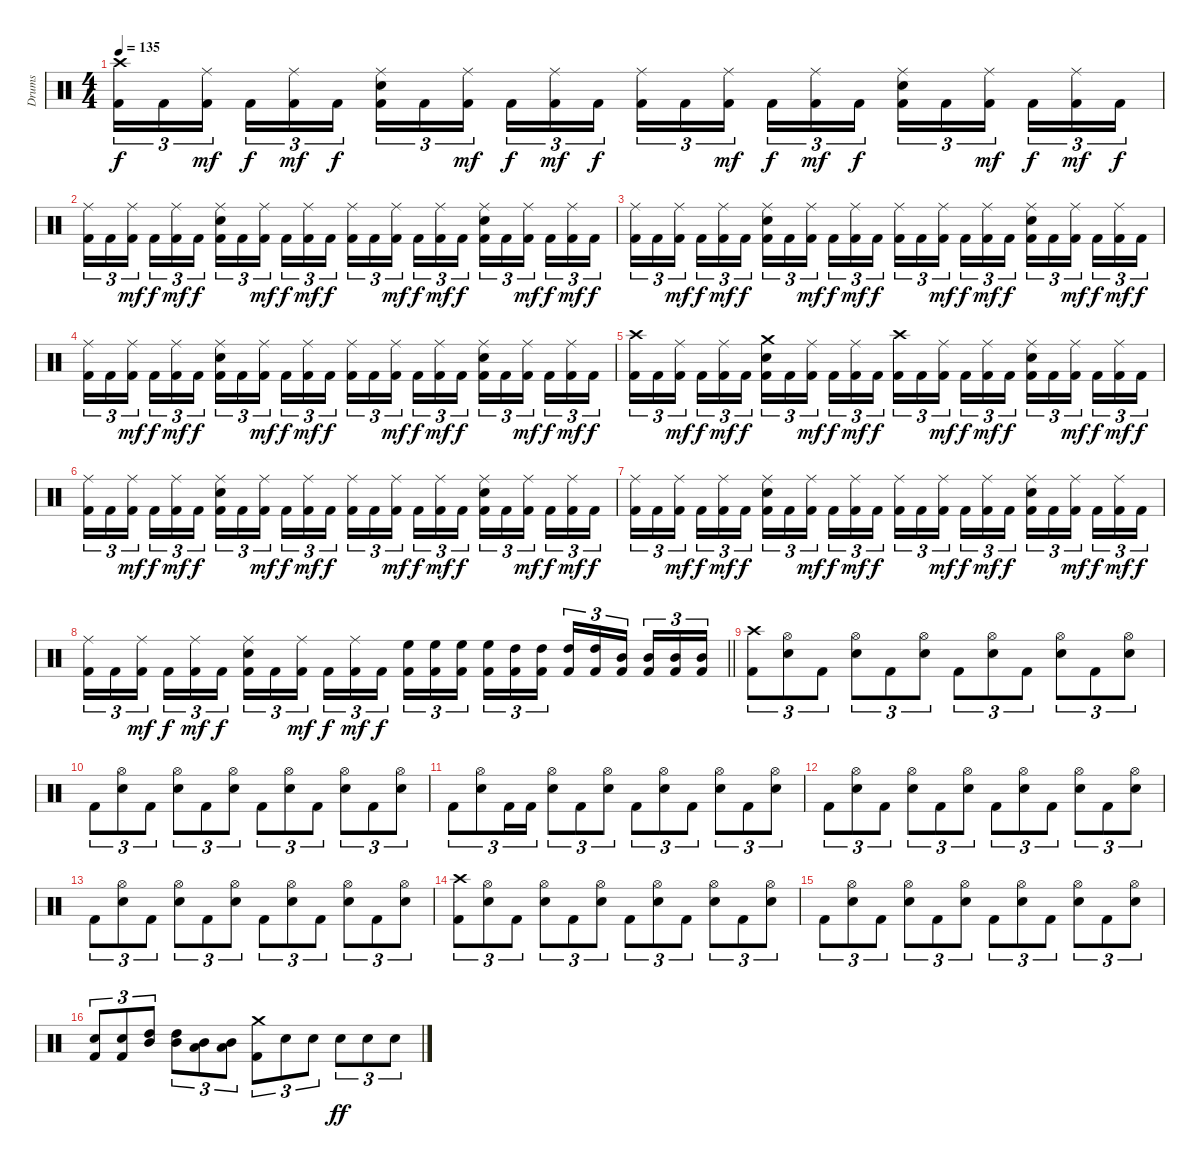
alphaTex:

\track ("Drums" "Drums") {instrument percussion}
\staff {score}
\articulation defaults
\ts (4 4)
\tempo 135
\clef neutral
\ks c
("Crash high (hit)" "Kick (hit) 2").16{tu (3 2) dy f} "Kick (hit) 2".16{tu (3 2)} ("Ride (middle)" "Kick (hit) 2").16{tu (3 2) dy mf beam splitsecondary} "Kick (hit) 2".16{tu (3 2) dy f} ("Ride (middle)" "Kick (hit) 2").16{tu (3 2) dy mf} "Kick (hit) 2".16{tu (3 2) dy f} ("Ride (middle)" "Electric Snare (hit)" "Kick (hit) 2").16{tu (3 2)} "Kick (hit) 2".16{tu (3 2)} ("Ride (middle)" "Kick (hit) 2").16{tu (3 2) dy mf beam splitsecondary} "Kick (hit) 2".16{tu (3 2) dy f} ("Ride (middle)" "Kick (hit) 2").16{tu (3 2) dy mf} "Kick (hit) 2".16{tu (3 2) dy f} ("Ride (middle)" "Kick (hit) 2").16{tu (3 2)} "Kick (hit) 2".16{tu (3 2)} ("Ride (middle)" "Kick (hit) 2").16{tu (3 2) dy mf beam splitsecondary} "Kick (hit) 2".16{tu (3 2) dy f} ("Ride (middle)" "Kick (hit) 2").16{tu (3 2) dy mf} "Kick (hit) 2".16{tu (3 2) dy f} ("Ride (middle)" "Electric Snare (hit)" "Kick (hit) 2").16{tu (3 2)} "Kick (hit) 2".16{tu (3 2)} ("Ride (middle)" "Kick (hit) 2").16{tu (3 2) dy mf beam splitsecondary} "Kick (hit) 2".16{tu (3 2) dy f} ("Ride (middle)" "Kick (hit) 2").16{tu (3 2) dy mf} "Kick (hit) 2".16{tu (3 2) dy f} |
("Ride (middle)" "Kick (hit) 2").16{tu (3 2)} "Kick (hit) 2".16{tu (3 2)} ("Ride (middle)" "Kick (hit) 2").16{tu (3 2) dy mf beam splitsecondary} "Kick (hit) 2".16{tu (3 2) dy f} ("Ride (middle)" "Kick (hit) 2").16{tu (3 2) dy mf} "Kick (hit) 2".16{tu (3 2) dy f} ("Ride (middle)" "Electric Snare (hit)" "Kick (hit) 2").16{tu (3 2)} "Kick (hit) 2".16{tu (3 2)} ("Ride (middle)" "Kick (hit) 2").16{tu (3 2) dy mf beam splitsecondary} "Kick (hit) 2".16{tu (3 2) dy f} ("Ride (middle)" "Kick (hit) 2").16{tu (3 2) dy mf} "Kick (hit) 2".16{tu (3 2) dy f} ("Ride (middle)" "Kick (hit) 2").16{tu (3 2)} "Kick (hit) 2".16{tu (3 2)} ("Ride (middle)" "Kick (hit) 2").16{tu (3 2) dy mf beam splitsecondary} "Kick (hit) 2".16{tu (3 2) dy f} ("Ride (middle)" "Kick (hit) 2").16{tu (3 2) dy mf} "Kick (hit) 2".16{tu (3 2) dy f} ("Ride (middle)" "Electric Snare (hit)" "Kick (hit) 2").16{tu (3 2)} "Kick (hit) 2".16{tu (3 2)} ("Ride (middle)" "Kick (hit) 2").16{tu (3 2) dy mf beam splitsecondary} "Kick (hit) 2".16{tu (3 2) dy f} ("Ride (middle)" "Kick (hit) 2").16{tu (3 2) dy mf} "Kick (hit) 2".16{tu (3 2) dy f} |
("Ride (middle)" "Kick (hit) 2").16{tu (3 2)} "Kick (hit) 2".16{tu (3 2)} ("Ride (middle)" "Kick (hit) 2").16{tu (3 2) dy mf beam splitsecondary} "Kick (hit) 2".16{tu (3 2) dy f} ("Ride (middle)" "Kick (hit) 2").16{tu (3 2) dy mf} "Kick (hit) 2".16{tu (3 2) dy f} ("Ride (middle)" "Electric Snare (hit)" "Kick (hit) 2").16{tu (3 2)} "Kick (hit) 2".16{tu (3 2)} ("Ride (middle)" "Kick (hit) 2").16{tu (3 2) dy mf beam splitsecondary} "Kick (hit) 2".16{tu (3 2) dy f} ("Ride (middle)" "Kick (hit) 2").16{tu (3 2) dy mf} "Kick (hit) 2".16{tu (3 2) dy f} ("Ride (middle)" "Kick (hit) 2").16{tu (3 2)} "Kick (hit) 2".16{tu (3 2)} ("Ride (middle)" "Kick (hit) 2").16{tu (3 2) dy mf beam splitsecondary} "Kick (hit) 2".16{tu (3 2) dy f} ("Ride (middle)" "Kick (hit) 2").16{tu (3 2) dy mf} "Kick (hit) 2".16{tu (3 2) dy f} ("Ride (middle)" "Electric Snare (hit)" "Kick (hit) 2").16{tu (3 2)} "Kick (hit) 2".16{tu (3 2)} ("Ride (middle)" "Kick (hit) 2").16{tu (3 2) dy mf beam splitsecondary} "Kick (hit) 2".16{tu (3 2) dy f} ("Ride (middle)" "Kick (hit) 2").16{tu (3 2) dy mf} "Kick (hit) 2".16{tu (3 2) dy f} |
("Ride (middle)" "Kick (hit) 2").16{tu (3 2)} "Kick (hit) 2".16{tu (3 2)} ("Ride (middle)" "Kick (hit) 2").16{tu (3 2) dy mf beam splitsecondary} "Kick (hit) 2".16{tu (3 2) dy f} ("Ride (middle)" "Kick (hit) 2").16{tu (3 2) dy mf} "Kick (hit) 2".16{tu (3 2) dy f} ("Ride (middle)" "Electric Snare (hit)" "Kick (hit) 2").16{tu (3 2)} "Kick (hit) 2".16{tu (3 2)} ("Ride (middle)" "Kick (hit) 2").16{tu (3 2) dy mf beam splitsecondary} "Kick (hit) 2".16{tu (3 2) dy f} ("Ride (middle)" "Kick (hit) 2").16{tu (3 2) dy mf} "Kick (hit) 2".16{tu (3 2) dy f} ("Ride (middle)" "Kick (hit) 2").16{tu (3 2)} "Kick (hit) 2".16{tu (3 2)} ("Ride (middle)" "Kick (hit) 2").16{tu (3 2) dy mf beam splitsecondary} "Kick (hit) 2".16{tu (3 2) dy f} ("Ride (middle)" "Kick (hit) 2").16{tu (3 2) dy mf} "Kick (hit) 2".16{tu (3 2) dy f} ("Ride (middle)" "Electric Snare (hit)" "Kick (hit) 2").16{tu (3 2)} "Kick (hit) 2".16{tu (3 2)} ("Ride (middle)" "Kick (hit) 2").16{tu (3 2) dy mf beam splitsecondary} "Kick (hit) 2".16{tu (3 2) dy f} ("Ride (middle)" "Kick (hit) 2").16{tu (3 2) dy mf} "Kick (hit) 2".16{tu (3 2) dy f} |
("Crash high (hit)" "Kick (hit) 2").16{tu (3 2)} "Kick (hit) 2".16{tu (3 2)} ("Ride (middle)" "Kick (hit) 2").16{tu (3 2) dy mf beam splitsecondary} "Kick (hit) 2".16{tu (3 2) dy f} ("Ride (middle)" "Kick (hit) 2").16{tu (3 2) dy mf} "Kick (hit) 2".16{tu (3 2) dy f} ("Crash medium (hit)" "Electric Snare (hit)" "Kick (hit) 2").16{tu (3 2)} "Kick (hit) 2".16{tu (3 2)} ("Ride (middle)" "Kick (hit) 2").16{tu (3 2) dy mf beam splitsecondary} "Kick (hit) 2".16{tu (3 2) dy f} ("Ride (middle)" "Kick (hit) 2").16{tu (3 2) dy mf} "Kick (hit) 2".16{tu (3 2) dy f} ("Crash high (hit)" "Kick (hit) 2").16{tu (3 2)} "Kick (hit) 2".16{tu (3 2)} ("Ride (middle)" "Kick (hit) 2").16{tu (3 2) dy mf beam splitsecondary} "Kick (hit) 2".16{tu (3 2) dy f} ("Ride (middle)" "Kick (hit) 2").16{tu (3 2) dy mf} "Kick (hit) 2".16{tu (3 2) dy f} ("Ride (middle)" "Electric Snare (hit)" "Kick (hit) 2").16{tu (3 2)} "Kick (hit) 2".16{tu (3 2)} ("Ride (middle)" "Kick (hit) 2").16{tu (3 2) dy mf beam splitsecondary} "Kick (hit) 2".16{tu (3 2) dy f} ("Ride (middle)" "Kick (hit) 2").16{tu (3 2) dy mf} "Kick (hit) 2".16{tu (3 2) dy f} |
("Ride (middle)" "Kick (hit) 2").16{tu (3 2)} "Kick (hit) 2".16{tu (3 2)} ("Ride (middle)" "Kick (hit) 2").16{tu (3 2) dy mf beam splitsecondary} "Kick (hit) 2".16{tu (3 2) dy f} ("Ride (middle)" "Kick (hit) 2").16{tu (3 2) dy mf} "Kick (hit) 2".16{tu (3 2) dy f} ("Ride (middle)" "Electric Snare (hit)" "Kick (hit) 2").16{tu (3 2)} "Kick (hit) 2".16{tu (3 2)} ("Ride (middle)" "Kick (hit) 2").16{tu (3 2) dy mf beam splitsecondary} "Kick (hit) 2".16{tu (3 2) dy f} ("Ride (middle)" "Kick (hit) 2").16{tu (3 2) dy mf} "Kick (hit) 2".16{tu (3 2) dy f} ("Ride (middle)" "Kick (hit) 2").16{tu (3 2)} "Kick (hit) 2".16{tu (3 2)} ("Ride (middle)" "Kick (hit) 2").16{tu (3 2) dy mf beam splitsecondary} "Kick (hit) 2".16{tu (3 2) dy f} ("Ride (middle)" "Kick (hit) 2").16{tu (3 2) dy mf} "Kick (hit) 2".16{tu (3 2) dy f} ("Ride (middle)" "Electric Snare (hit)" "Kick (hit) 2").16{tu (3 2)} "Kick (hit) 2".16{tu (3 2)} ("Ride (middle)" "Kick (hit) 2").16{tu (3 2) dy mf beam splitsecondary} "Kick (hit) 2".16{tu (3 2) dy f} ("Ride (middle)" "Kick (hit) 2").16{tu (3 2) dy mf} "Kick (hit) 2".16{tu (3 2) dy f} |
("Ride (middle)" "Kick (hit) 2").16{tu (3 2)} "Kick (hit) 2".16{tu (3 2)} ("Ride (middle)" "Kick (hit) 2").16{tu (3 2) dy mf beam splitsecondary} "Kick (hit) 2".16{tu (3 2) dy f} ("Ride (middle)" "Kick (hit) 2").16{tu (3 2) dy mf} "Kick (hit) 2".16{tu (3 2) dy f} ("Ride (middle)" "Electric Snare (hit)" "Kick (hit) 2").16{tu (3 2)} "Kick (hit) 2".16{tu (3 2)} ("Ride (middle)" "Kick (hit) 2").16{tu (3 2) dy mf beam splitsecondary} "Kick (hit) 2".16{tu (3 2) dy f} ("Ride (middle)" "Kick (hit) 2").16{tu (3 2) dy mf} "Kick (hit) 2".16{tu (3 2) dy f} ("Ride (middle)" "Kick (hit) 2").16{tu (3 2)} "Kick (hit) 2".16{tu (3 2)} ("Ride (middle)" "Kick (hit) 2").16{tu (3 2) dy mf beam splitsecondary} "Kick (hit) 2".16{tu (3 2) dy f} ("Ride (middle)" "Kick (hit) 2").16{tu (3 2) dy mf} "Kick (hit) 2".16{tu (3 2) dy f} ("Ride (middle)" "Electric Snare (hit)" "Kick (hit) 2").16{tu (3 2)} "Kick (hit) 2".16{tu (3 2)} ("Ride (middle)" "Kick (hit) 2").16{tu (3 2) dy mf beam splitsecondary} "Kick (hit) 2".16{tu (3 2) dy f} ("Ride (middle)" "Kick (hit) 2").16{tu (3 2) dy mf} "Kick (hit) 2".16{tu (3 2) dy f} |
\barLineRight lightlight
("Ride (middle)" "Kick (hit) 2").16{tu (3 2)} "Kick (hit) 2".16{tu (3 2)} ("Ride (middle)" "Kick (hit) 2").16{tu (3 2) dy mf beam splitsecondary} "Kick (hit) 2".16{tu (3 2) dy f} ("Ride (middle)" "Kick (hit) 2").16{tu (3 2) dy mf} "Kick (hit) 2".16{tu (3 2) dy f} ("Ride (middle)" "Electric Snare (hit)" "Kick (hit) 2").16{tu (3 2)} "Kick (hit) 2".16{tu (3 2)} ("Ride (middle)" "Kick (hit) 2").16{tu (3 2) dy mf beam splitsecondary} "Kick (hit) 2".16{tu (3 2) dy f} ("Ride (middle)" "Kick (hit) 2").16{tu (3 2) dy mf} "Kick (hit) 2".16{tu (3 2) dy f} ("High Floor Tom (hit)" "Kick (hit) 2").16{tu (3 2)} ("High Floor Tom (hit)" "Kick (hit) 2").16{tu (3 2)} ("High Floor Tom (hit)" "Kick (hit) 2").16{tu (3 2) beam splitsecondary} ("High Floor Tom (hit)" "Kick (hit) 2").16{tu (3 2)} ("High Tom (hit)" "Kick (hit) 2").16{tu (3 2)} ("High Tom (hit)" "Kick (hit) 2").16{tu (3 2)} ("High Tom (hit)" "Kick (hit) 2").16{tu (3 2)} ("High Tom (hit)" "Kick (hit) 2").16{tu (3 2)} ("Mid Tom (hit)" "Kick (hit) 2").16{tu (3 2) beam splitsecondary} ("Mid Tom (hit)" "Kick (hit) 2").16{tu (3 2)} ("Mid Tom (hit)" "Kick (hit) 2").16{tu (3 2)} ("Mid Tom (hit)" "Kick (hit) 2").16{tu (3 2)} |
("Crash high (hit)" "Kick (hit) 2").8{tu (3 2)} ("Hi-Hat (open)" "Electric Snare (hit)").8{tu (3 2)} "Kick (hit) 2".8{tu (3 2)} ("Hi-Hat (open)" "Electric Snare (hit)").8{tu (3 2)} "Kick (hit) 2".8{tu (3 2)} ("Hi-Hat (open)" "Electric Snare (hit)").8{tu (3 2)} "Kick (hit) 2".8{tu (3 2)} ("Hi-Hat (open)" "Electric Snare (hit)").8{tu (3 2)} "Kick (hit) 2".8{tu (3 2)} ("Hi-Hat (open)" "Electric Snare (hit)").8{tu (3 2)} "Kick (hit) 2".8{tu (3 2)} ("Hi-Hat (open)" "Electric Snare (hit)").8{tu (3 2)} |
"Kick (hit) 2".8{tu (3 2)} ("Hi-Hat (open)" "Electric Snare (hit)").8{tu (3 2)} "Kick (hit) 2".8{tu (3 2)} ("Hi-Hat (open)" "Electric Snare (hit)").8{tu (3 2)} "Kick (hit) 2".8{tu (3 2)} ("Hi-Hat (open)" "Electric Snare (hit)").8{tu (3 2)} "Kick (hit) 2".8{tu (3 2)} ("Hi-Hat (open)" "Electric Snare (hit)").8{tu (3 2)} "Kick (hit) 2".8{tu (3 2)} ("Hi-Hat (open)" "Electric Snare (hit)").8{tu (3 2)} "Kick (hit) 2".8{tu (3 2)} ("Hi-Hat (open)" "Electric Snare (hit)").8{tu (3 2)} |
"Kick (hit) 2".8{tu (3 2)} ("Hi-Hat (open)" "Electric Snare (hit)").8{tu (3 2)} "Kick (hit) 2".16{tu (3 2)} "Kick (hit) 2".16{tu (3 2)} ("Hi-Hat (open)" "Electric Snare (hit)").8{tu (3 2)} "Kick (hit) 2".8{tu (3 2)} ("Hi-Hat (open)" "Electric Snare (hit)").8{tu (3 2)} "Kick (hit) 2".8{tu (3 2)} ("Hi-Hat (open)" "Electric Snare (hit)").8{tu (3 2)} "Kick (hit) 2".8{tu (3 2)} ("Hi-Hat (open)" "Electric Snare (hit)").8{tu (3 2)} "Kick (hit) 2".8{tu (3 2)} ("Hi-Hat (open)" "Electric Snare (hit)").8{tu (3 2)} |
"Kick (hit) 2".8{tu (3 2)} ("Hi-Hat (open)" "Electric Snare (hit)").8{tu (3 2)} "Kick (hit) 2".8{tu (3 2)} ("Hi-Hat (open)" "Electric Snare (hit)").8{tu (3 2)} "Kick (hit) 2".8{tu (3 2)} ("Hi-Hat (open)" "Electric Snare (hit)").8{tu (3 2)} "Kick (hit) 2".8{tu (3 2)} ("Hi-Hat (open)" "Electric Snare (hit)").8{tu (3 2)} "Kick (hit) 2".8{tu (3 2)} ("Hi-Hat (open)" "Electric Snare (hit)").8{tu (3 2)} "Kick (hit) 2".8{tu (3 2)} ("Hi-Hat (open)" "Electric Snare (hit)").8{tu (3 2)} |
"Kick (hit) 2".8{tu (3 2)} ("Hi-Hat (open)" "Electric Snare (hit)").8{tu (3 2)} "Kick (hit) 2".8{tu (3 2)} ("Hi-Hat (open)" "Electric Snare (hit)").8{tu (3 2)} "Kick (hit) 2".8{tu (3 2)} ("Hi-Hat (open)" "Electric Snare (hit)").8{tu (3 2)} "Kick (hit) 2".8{tu (3 2)} ("Hi-Hat (open)" "Electric Snare (hit)").8{tu (3 2)} "Kick (hit) 2".8{tu (3 2)} ("Hi-Hat (open)" "Electric Snare (hit)").8{tu (3 2)} "Kick (hit) 2".8{tu (3 2)} ("Hi-Hat (open)" "Electric Snare (hit)").8{tu (3 2)} |
("Crash high (hit)" "Kick (hit) 2").8{tu (3 2)} ("Hi-Hat (open)" "Electric Snare (hit)").8{tu (3 2)} "Kick (hit) 2".8{tu (3 2)} ("Hi-Hat (open)" "Electric Snare (hit)").8{tu (3 2)} "Kick (hit) 2".8{tu (3 2)} ("Hi-Hat (open)" "Electric Snare (hit)").8{tu (3 2)} "Kick (hit) 2".8{tu (3 2)} ("Hi-Hat (open)" "Electric Snare (hit)").8{tu (3 2)} "Kick (hit) 2".8{tu (3 2)} ("Hi-Hat (open)" "Electric Snare (hit)").8{tu (3 2)} "Kick (hit) 2".8{tu (3 2)} ("Hi-Hat (open)" "Electric Snare (hit)").8{tu (3 2)} |
"Kick (hit) 2".8{tu (3 2)} ("Hi-Hat (open)" "Electric Snare (hit)").8{tu (3 2)} "Kick (hit) 2".8{tu (3 2)} ("Hi-Hat (open)" "Electric Snare (hit)").8{tu (3 2)} "Kick (hit) 2".8{tu (3 2)} ("Hi-Hat (open)" "Electric Snare (hit)").8{tu (3 2)} "Kick (hit) 2".8{tu (3 2)} ("Hi-Hat (open)" "Electric Snare (hit)").8{tu (3 2)} "Kick (hit) 2".8{tu (3 2)} ("Hi-Hat (open)" "Electric Snare (hit)").8{tu (3 2)} "Kick (hit) 2".8{tu (3 2)} ("Hi-Hat (open)" "Electric Snare (hit)").8{tu (3 2)} |
("Snare (hit) 2" "Kick (hit) 2").8{tu (3 2)} ("Snare (hit) 2" "Kick (hit) 2").8{tu (3 2)} ("Mid Tom (hit)" "High Tom (hit)").8{tu (3 2)} ("Mid Tom (hit)" "High Tom (hit)").8{tu (3 2)} ("Low Tom (hit)" "Mid Tom (hit)").8{tu (3 2)} ("Low Tom (hit)" "Mid Tom (hit)").8{tu (3 2)} ("Crash medium (hit)" "Kick (hit) 2").8{tu (3 2)} "Snare (hit) 2".8{tu (3 2)} "Snare (hit) 2".8{tu (3 2)} "Snare (hit) 2".8{tu (3 2) dy ff} "Snare (hit) 2".8{tu (3 2)} "Snare (hit) 2".8{tu (3 2)}
